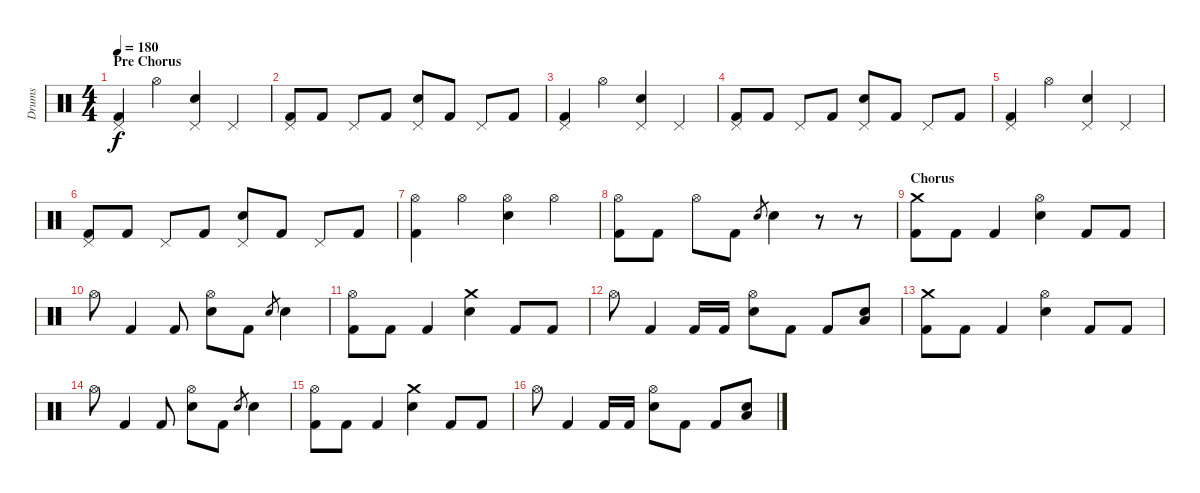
\track ("Drums" "Drums") {instrument percussion}
\staff {score}
\articulation defaults
\ts (4 4)
\section ("" "Pre Chorus")
\tempo 180
\clef neutral
\ks c
("Pedal Hi-Hat (hit)" "Kick (hit) 2").4{dy f} "Hi-Hat (open)".4 ("Pedal Hi-Hat (hit)" "Electric Snare (hit)").4 "Pedal Hi-Hat (hit)".4 |
("Pedal Hi-Hat (hit)" "Kick (hit) 2").8 "Kick (hit) 2".8 "Pedal Hi-Hat (hit)".8 "Kick (hit) 2".8 ("Pedal Hi-Hat (hit)" "Electric Snare (hit)").8 "Kick (hit) 2".8 "Pedal Hi-Hat (hit)".8 "Kick (hit) 2".8 |
("Pedal Hi-Hat (hit)" "Kick (hit) 2").4 "Hi-Hat (open)".4 ("Pedal Hi-Hat (hit)" "Electric Snare (hit)").4 "Pedal Hi-Hat (hit)".4 |
("Pedal Hi-Hat (hit)" "Kick (hit) 2").8 "Kick (hit) 2".8 "Pedal Hi-Hat (hit)".8 "Kick (hit) 2".8 ("Pedal Hi-Hat (hit)" "Electric Snare (hit)").8 "Kick (hit) 2".8 "Pedal Hi-Hat (hit)".8 "Kick (hit) 2".8 |
("Pedal Hi-Hat (hit)" "Kick (hit) 2").4 "Hi-Hat (open)".4 ("Pedal Hi-Hat (hit)" "Electric Snare (hit)").4 "Pedal Hi-Hat (hit)".4 |
("Pedal Hi-Hat (hit)" "Kick (hit) 2").8 "Kick (hit) 2".8 "Pedal Hi-Hat (hit)".8 "Kick (hit) 2".8 ("Pedal Hi-Hat (hit)" "Electric Snare (hit)").8 "Kick (hit) 2".8 "Pedal Hi-Hat (hit)".8 "Kick (hit) 2".8 |
("Hi-Hat (open)" "Kick (hit) 2").4 "Hi-Hat (open)".4 ("Hi-Hat (open)" "Electric Snare (hit)").4 "Hi-Hat (open)".4 |
("Hi-Hat (open)" "Kick (hit) 2").8 "Kick (hit) 2".8 "Hi-Hat (open)".8 "Kick (hit) 2".8 "Electric Snare (hit)".8{gr} "Electric Snare (hit)".4 r.8 r.8 |
\section ("" "Chorus")
("Crash medium (hit)" "Kick (hit) 2").8 "Kick (hit) 2".8 "Kick (hit) 2".4 ("Hi-Hat (open)" "Electric Snare (hit)").4 "Kick (hit) 2".8 "Kick (hit) 2".8 |
"Hi-Hat (open)".8 "Kick (hit) 2".4 "Kick (hit) 2".8 ("Hi-Hat (open)" "Electric Snare (hit)").8 "Kick (hit) 2".8 "Electric Snare (hit)".8{gr} "Electric Snare (hit)".4 |
("Hi-Hat (open)" "Kick (hit) 2").8 "Kick (hit) 2".8 "Kick (hit) 2".4 ("Crash medium (hit)" "Electric Snare (hit)").4 "Kick (hit) 2".8 "Kick (hit) 2".8 |
"Hi-Hat (open)".8 "Kick (hit) 2".4 "Kick (hit) 2".16 "Kick (hit) 2".16 ("Hi-Hat (open)" "Electric Snare (hit)").8 "Kick (hit) 2".8 "Kick (hit) 2".8 ("Electric Snare (hit)" "Low Tom (hit)").8 |
("Crash medium (hit)" "Kick (hit) 2").8 "Kick (hit) 2".8 "Kick (hit) 2".4 ("Hi-Hat (open)" "Electric Snare (hit)").4 "Kick (hit) 2".8 "Kick (hit) 2".8 |
"Hi-Hat (open)".8 "Kick (hit) 2".4 "Kick (hit) 2".8 ("Hi-Hat (open)" "Electric Snare (hit)").8 "Kick (hit) 2".8 "Electric Snare (hit)".8{gr} "Electric Snare (hit)".4 |
("Hi-Hat (open)" "Kick (hit) 2").8 "Kick (hit) 2".8 "Kick (hit) 2".4 ("Crash medium (hit)" "Electric Snare (hit)").4 "Kick (hit) 2".8 "Kick (hit) 2".8 |
"Hi-Hat (open)".8 "Kick (hit) 2".4 "Kick (hit) 2".16 "Kick (hit) 2".16 ("Hi-Hat (open)" "Electric Snare (hit)").8 "Kick (hit) 2".8 "Kick (hit) 2".8 ("Electric Snare (hit)" "Low Tom (hit)").8
